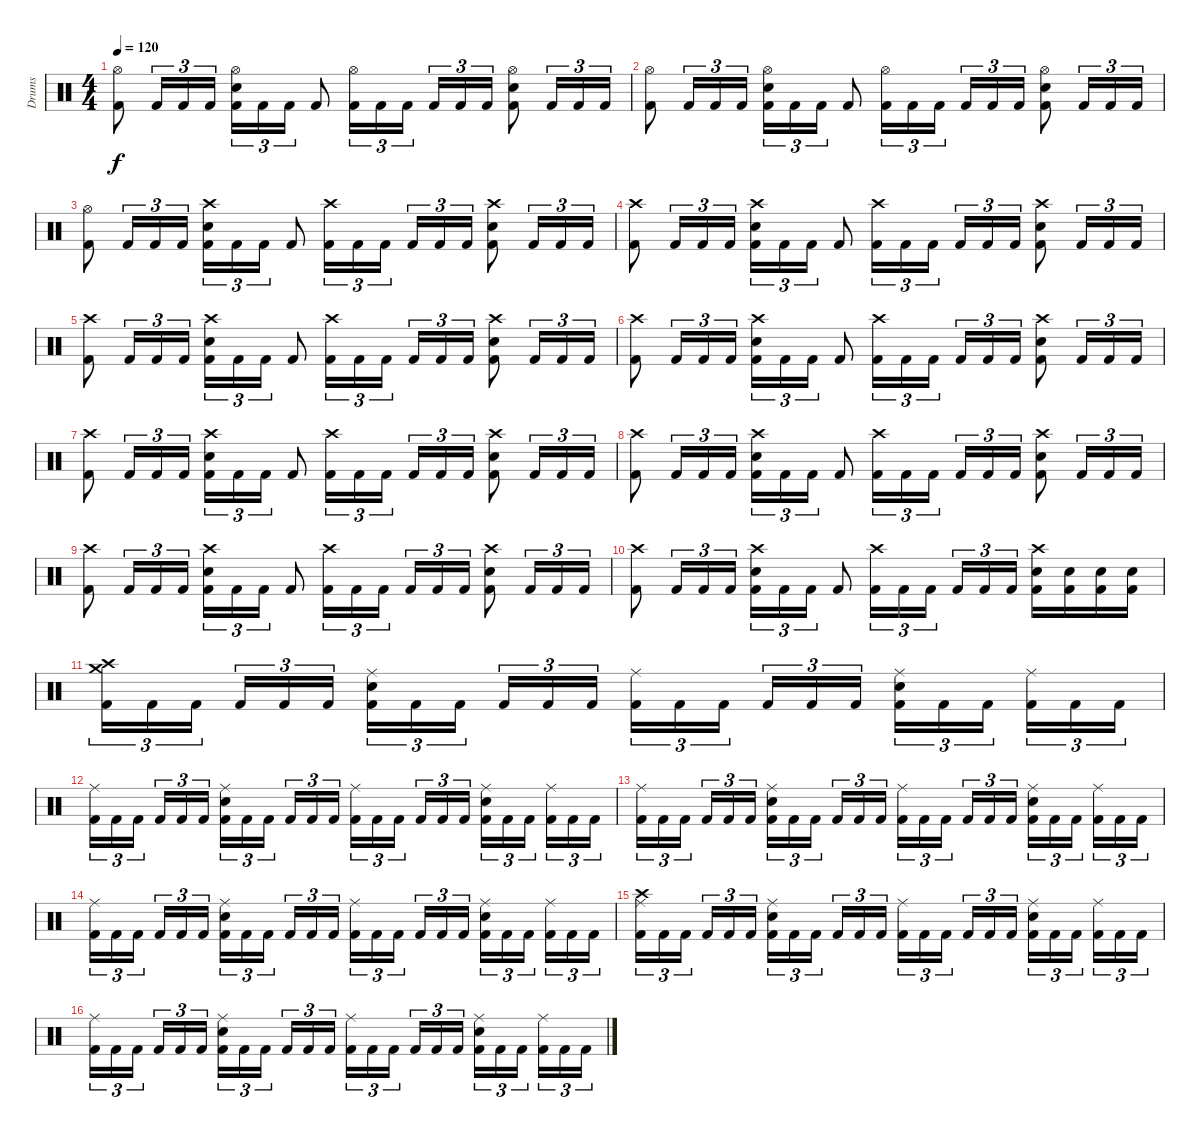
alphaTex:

\track ("Drums" "Drums") {instrument percussion}
\staff {score}
\articulation defaults
\ts (4 4)
\tempo 120
\clef neutral
\ks c
("Hi-Hat (open)" "Kick (hit) 2").8{dy f} "Kick (hit) 2".16{tu (3 2)} "Kick (hit) 2".16{tu (3 2)} "Kick (hit) 2".16{tu (3 2)} ("Hi-Hat (open)" "Electric Snare (hit)" "Kick (hit) 2").16{tu (3 2)} "Kick (hit) 2".16{tu (3 2)} "Kick (hit) 2".16{tu (3 2)} "Kick (hit) 2".8 ("Hi-Hat (open)" "Kick (hit) 2").16{tu (3 2)} "Kick (hit) 2".16{tu (3 2)} "Kick (hit) 2".16{tu (3 2)} "Kick (hit) 2".16{tu (3 2)} "Kick (hit) 2".16{tu (3 2)} "Kick (hit) 2".16{tu (3 2)} ("Hi-Hat (open)" "Electric Snare (hit)" "Kick (hit) 2").8 "Kick (hit) 2".16{tu (3 2)} "Kick (hit) 2".16{tu (3 2)} "Kick (hit) 2".16{tu (3 2)} |
("Hi-Hat (open)" "Kick (hit) 2").8 "Kick (hit) 2".16{tu (3 2)} "Kick (hit) 2".16{tu (3 2)} "Kick (hit) 2".16{tu (3 2)} ("Hi-Hat (open)" "Electric Snare (hit)" "Kick (hit) 2").16{tu (3 2)} "Kick (hit) 2".16{tu (3 2)} "Kick (hit) 2".16{tu (3 2)} "Kick (hit) 2".8 ("Hi-Hat (open)" "Kick (hit) 2").16{tu (3 2)} "Kick (hit) 2".16{tu (3 2)} "Kick (hit) 2".16{tu (3 2)} "Kick (hit) 2".16{tu (3 2)} "Kick (hit) 2".16{tu (3 2)} "Kick (hit) 2".16{tu (3 2)} ("Hi-Hat (open)" "Electric Snare (hit)" "Kick (hit) 2").8 "Kick (hit) 2".16{tu (3 2)} "Kick (hit) 2".16{tu (3 2)} "Kick (hit) 2".16{tu (3 2)} |
("Hi-Hat (open)" "Kick (hit) 2").8 "Kick (hit) 2".16{tu (3 2)} "Kick (hit) 2".16{tu (3 2)} "Kick (hit) 2".16{tu (3 2)} ("Crash high (hit)" "Electric Snare (hit)" "Kick (hit) 2").16{tu (3 2)} "Kick (hit) 2".16{tu (3 2)} "Kick (hit) 2".16{tu (3 2)} "Kick (hit) 2".8 ("Crash high (hit)" "Kick (hit) 2").16{tu (3 2)} "Kick (hit) 2".16{tu (3 2)} "Kick (hit) 2".16{tu (3 2)} "Kick (hit) 2".16{tu (3 2)} "Kick (hit) 2".16{tu (3 2)} "Kick (hit) 2".16{tu (3 2)} ("Crash high (hit)" "Electric Snare (hit)" "Kick (hit) 2").8 "Kick (hit) 2".16{tu (3 2)} "Kick (hit) 2".16{tu (3 2)} "Kick (hit) 2".16{tu (3 2)} |
("Crash high (hit)" "Kick (hit) 2").8 "Kick (hit) 2".16{tu (3 2)} "Kick (hit) 2".16{tu (3 2)} "Kick (hit) 2".16{tu (3 2)} ("Crash high (hit)" "Electric Snare (hit)" "Kick (hit) 2").16{tu (3 2)} "Kick (hit) 2".16{tu (3 2)} "Kick (hit) 2".16{tu (3 2)} "Kick (hit) 2".8 ("Crash high (hit)" "Kick (hit) 2").16{tu (3 2)} "Kick (hit) 2".16{tu (3 2)} "Kick (hit) 2".16{tu (3 2)} "Kick (hit) 2".16{tu (3 2)} "Kick (hit) 2".16{tu (3 2)} "Kick (hit) 2".16{tu (3 2)} ("Crash high (hit)" "Electric Snare (hit)" "Kick (hit) 2").8 "Kick (hit) 2".16{tu (3 2)} "Kick (hit) 2".16{tu (3 2)} "Kick (hit) 2".16{tu (3 2)} |
("Crash high (hit)" "Kick (hit) 2").8 "Kick (hit) 2".16{tu (3 2)} "Kick (hit) 2".16{tu (3 2)} "Kick (hit) 2".16{tu (3 2)} ("Crash high (hit)" "Electric Snare (hit)" "Kick (hit) 2").16{tu (3 2)} "Kick (hit) 2".16{tu (3 2)} "Kick (hit) 2".16{tu (3 2)} "Kick (hit) 2".8 ("Crash high (hit)" "Kick (hit) 2").16{tu (3 2)} "Kick (hit) 2".16{tu (3 2)} "Kick (hit) 2".16{tu (3 2)} "Kick (hit) 2".16{tu (3 2)} "Kick (hit) 2".16{tu (3 2)} "Kick (hit) 2".16{tu (3 2)} ("Crash high (hit)" "Electric Snare (hit)" "Kick (hit) 2").8 "Kick (hit) 2".16{tu (3 2)} "Kick (hit) 2".16{tu (3 2)} "Kick (hit) 2".16{tu (3 2)} |
("Crash high (hit)" "Kick (hit) 2").8 "Kick (hit) 2".16{tu (3 2)} "Kick (hit) 2".16{tu (3 2)} "Kick (hit) 2".16{tu (3 2)} ("Crash high (hit)" "Electric Snare (hit)" "Kick (hit) 2").16{tu (3 2)} "Kick (hit) 2".16{tu (3 2)} "Kick (hit) 2".16{tu (3 2)} "Kick (hit) 2".8 ("Crash high (hit)" "Kick (hit) 2").16{tu (3 2)} "Kick (hit) 2".16{tu (3 2)} "Kick (hit) 2".16{tu (3 2)} "Kick (hit) 2".16{tu (3 2)} "Kick (hit) 2".16{tu (3 2)} "Kick (hit) 2".16{tu (3 2)} ("Crash high (hit)" "Electric Snare (hit)" "Kick (hit) 2").8 "Kick (hit) 2".16{tu (3 2)} "Kick (hit) 2".16{tu (3 2)} "Kick (hit) 2".16{tu (3 2)} |
("Crash high (hit)" "Kick (hit) 2").8 "Kick (hit) 2".16{tu (3 2)} "Kick (hit) 2".16{tu (3 2)} "Kick (hit) 2".16{tu (3 2)} ("Crash high (hit)" "Electric Snare (hit)" "Kick (hit) 2").16{tu (3 2)} "Kick (hit) 2".16{tu (3 2)} "Kick (hit) 2".16{tu (3 2)} "Kick (hit) 2".8 ("Crash high (hit)" "Kick (hit) 2").16{tu (3 2)} "Kick (hit) 2".16{tu (3 2)} "Kick (hit) 2".16{tu (3 2)} "Kick (hit) 2".16{tu (3 2)} "Kick (hit) 2".16{tu (3 2)} "Kick (hit) 2".16{tu (3 2)} ("Crash high (hit)" "Electric Snare (hit)" "Kick (hit) 2").8 "Kick (hit) 2".16{tu (3 2)} "Kick (hit) 2".16{tu (3 2)} "Kick (hit) 2".16{tu (3 2)} |
("Crash high (hit)" "Kick (hit) 2").8 "Kick (hit) 2".16{tu (3 2)} "Kick (hit) 2".16{tu (3 2)} "Kick (hit) 2".16{tu (3 2)} ("Crash high (hit)" "Electric Snare (hit)" "Kick (hit) 2").16{tu (3 2)} "Kick (hit) 2".16{tu (3 2)} "Kick (hit) 2".16{tu (3 2)} "Kick (hit) 2".8 ("Crash high (hit)" "Kick (hit) 2").16{tu (3 2)} "Kick (hit) 2".16{tu (3 2)} "Kick (hit) 2".16{tu (3 2)} "Kick (hit) 2".16{tu (3 2)} "Kick (hit) 2".16{tu (3 2)} "Kick (hit) 2".16{tu (3 2)} ("Crash high (hit)" "Electric Snare (hit)" "Kick (hit) 2").8 "Kick (hit) 2".16{tu (3 2)} "Kick (hit) 2".16{tu (3 2)} "Kick (hit) 2".16{tu (3 2)} |
("Crash high (hit)" "Kick (hit) 2").8 "Kick (hit) 2".16{tu (3 2)} "Kick (hit) 2".16{tu (3 2)} "Kick (hit) 2".16{tu (3 2)} ("Crash high (hit)" "Electric Snare (hit)" "Kick (hit) 2").16{tu (3 2)} "Kick (hit) 2".16{tu (3 2)} "Kick (hit) 2".16{tu (3 2)} "Kick (hit) 2".8 ("Crash high (hit)" "Kick (hit) 2").16{tu (3 2)} "Kick (hit) 2".16{tu (3 2)} "Kick (hit) 2".16{tu (3 2)} "Kick (hit) 2".16{tu (3 2)} "Kick (hit) 2".16{tu (3 2)} "Kick (hit) 2".16{tu (3 2)} ("Crash high (hit)" "Electric Snare (hit)" "Kick (hit) 2").8 "Kick (hit) 2".16{tu (3 2)} "Kick (hit) 2".16{tu (3 2)} "Kick (hit) 2".16{tu (3 2)} |
("Crash high (hit)" "Kick (hit) 2").8 "Kick (hit) 2".16{tu (3 2)} "Kick (hit) 2".16{tu (3 2)} "Kick (hit) 2".16{tu (3 2)} ("Crash high (hit)" "Electric Snare (hit)" "Kick (hit) 2").16{tu (3 2)} "Kick (hit) 2".16{tu (3 2)} "Kick (hit) 2".16{tu (3 2)} "Kick (hit) 2".8 ("Crash high (hit)" "Kick (hit) 2").16{tu (3 2)} "Kick (hit) 2".16{tu (3 2)} "Kick (hit) 2".16{tu (3 2)} "Kick (hit) 2".16{tu (3 2)} "Kick (hit) 2".16{tu (3 2)} "Kick (hit) 2".16{tu (3 2)} ("Crash high (hit)" "Electric Snare (hit)" "Kick (hit) 2").16 ("Electric Snare (hit)" "Kick (hit) 2").16 ("Electric Snare (hit)" "Kick (hit) 2").16 ("Electric Snare (hit)" "Kick (hit) 2").16 |
("Crash medium (hit)" "Crash high (hit)" "Kick (hit) 2").16{tu (3 2)} "Kick (hit) 2".16{tu (3 2)} "Kick (hit) 2".16{tu (3 2)} "Kick (hit) 2".16{tu (3 2)} "Kick (hit) 2".16{tu (3 2)} "Kick (hit) 2".16{tu (3 2)} ("Ride (middle)" "Electric Snare (hit)" "Kick (hit) 2").16{tu (3 2)} "Kick (hit) 2".16{tu (3 2)} "Kick (hit) 2".16{tu (3 2)} "Kick (hit) 2".16{tu (3 2)} "Kick (hit) 2".16{tu (3 2)} "Kick (hit) 2".16{tu (3 2)} ("Ride (middle)" "Kick (hit) 2").16{tu (3 2)} "Kick (hit) 2".16{tu (3 2)} "Kick (hit) 2".16{tu (3 2)} "Kick (hit) 2".16{tu (3 2)} "Kick (hit) 2".16{tu (3 2)} "Kick (hit) 2".16{tu (3 2)} ("Ride (middle)" "Electric Snare (hit)" "Kick (hit) 2").16{tu (3 2)} "Kick (hit) 2".16{tu (3 2)} "Kick (hit) 2".16{tu (3 2)} ("Ride (middle)" "Kick (hit) 2").16{tu (3 2)} "Kick (hit) 2".16{tu (3 2)} "Kick (hit) 2".16{tu (3 2)} |
("Ride (middle)" "Kick (hit) 2").16{tu (3 2)} "Kick (hit) 2".16{tu (3 2)} "Kick (hit) 2".16{tu (3 2)} "Kick (hit) 2".16{tu (3 2)} "Kick (hit) 2".16{tu (3 2)} "Kick (hit) 2".16{tu (3 2)} ("Ride (middle)" "Electric Snare (hit)" "Kick (hit) 2").16{tu (3 2)} "Kick (hit) 2".16{tu (3 2)} "Kick (hit) 2".16{tu (3 2)} "Kick (hit) 2".16{tu (3 2)} "Kick (hit) 2".16{tu (3 2)} "Kick (hit) 2".16{tu (3 2)} ("Ride (middle)" "Kick (hit) 2").16{tu (3 2)} "Kick (hit) 2".16{tu (3 2)} "Kick (hit) 2".16{tu (3 2)} "Kick (hit) 2".16{tu (3 2)} "Kick (hit) 2".16{tu (3 2)} "Kick (hit) 2".16{tu (3 2)} ("Ride (middle)" "Electric Snare (hit)" "Kick (hit) 2").16{tu (3 2)} "Kick (hit) 2".16{tu (3 2)} "Kick (hit) 2".16{tu (3 2)} ("Ride (middle)" "Kick (hit) 2").16{tu (3 2)} "Kick (hit) 2".16{tu (3 2)} "Kick (hit) 2".16{tu (3 2)} |
("Ride (middle)" "Kick (hit) 2").16{tu (3 2)} "Kick (hit) 2".16{tu (3 2)} "Kick (hit) 2".16{tu (3 2)} "Kick (hit) 2".16{tu (3 2)} "Kick (hit) 2".16{tu (3 2)} "Kick (hit) 2".16{tu (3 2)} ("Ride (middle)" "Electric Snare (hit)" "Kick (hit) 2").16{tu (3 2)} "Kick (hit) 2".16{tu (3 2)} "Kick (hit) 2".16{tu (3 2)} "Kick (hit) 2".16{tu (3 2)} "Kick (hit) 2".16{tu (3 2)} "Kick (hit) 2".16{tu (3 2)} ("Ride (middle)" "Kick (hit) 2").16{tu (3 2)} "Kick (hit) 2".16{tu (3 2)} "Kick (hit) 2".16{tu (3 2)} "Kick (hit) 2".16{tu (3 2)} "Kick (hit) 2".16{tu (3 2)} "Kick (hit) 2".16{tu (3 2)} ("Ride (middle)" "Electric Snare (hit)" "Kick (hit) 2").16{tu (3 2)} "Kick (hit) 2".16{tu (3 2)} "Kick (hit) 2".16{tu (3 2)} ("Ride (middle)" "Kick (hit) 2").16{tu (3 2)} "Kick (hit) 2".16{tu (3 2)} "Kick (hit) 2".16{tu (3 2)} |
("Ride (middle)" "Kick (hit) 2").16{tu (3 2)} "Kick (hit) 2".16{tu (3 2)} "Kick (hit) 2".16{tu (3 2)} "Kick (hit) 2".16{tu (3 2)} "Kick (hit) 2".16{tu (3 2)} "Kick (hit) 2".16{tu (3 2)} ("Ride (middle)" "Electric Snare (hit)" "Kick (hit) 2").16{tu (3 2)} "Kick (hit) 2".16{tu (3 2)} "Kick (hit) 2".16{tu (3 2)} "Kick (hit) 2".16{tu (3 2)} "Kick (hit) 2".16{tu (3 2)} "Kick (hit) 2".16{tu (3 2)} ("Ride (middle)" "Kick (hit) 2").16{tu (3 2)} "Kick (hit) 2".16{tu (3 2)} "Kick (hit) 2".16{tu (3 2)} "Kick (hit) 2".16{tu (3 2)} "Kick (hit) 2".16{tu (3 2)} "Kick (hit) 2".16{tu (3 2)} ("Ride (middle)" "Electric Snare (hit)" "Kick (hit) 2").16{tu (3 2)} "Kick (hit) 2".16{tu (3 2)} "Kick (hit) 2".16{tu (3 2)} ("Ride (middle)" "Kick (hit) 2").16{tu (3 2)} "Kick (hit) 2".16{tu (3 2)} "Kick (hit) 2".16{tu (3 2)} |
("Crash high (hit)" "Ride (middle)" "Kick (hit) 2").16{tu (3 2)} "Kick (hit) 2".16{tu (3 2)} "Kick (hit) 2".16{tu (3 2)} "Kick (hit) 2".16{tu (3 2)} "Kick (hit) 2".16{tu (3 2)} "Kick (hit) 2".16{tu (3 2)} ("Ride (middle)" "Electric Snare (hit)" "Kick (hit) 2").16{tu (3 2)} "Kick (hit) 2".16{tu (3 2)} "Kick (hit) 2".16{tu (3 2)} "Kick (hit) 2".16{tu (3 2)} "Kick (hit) 2".16{tu (3 2)} "Kick (hit) 2".16{tu (3 2)} ("Ride (middle)" "Kick (hit) 2").16{tu (3 2)} "Kick (hit) 2".16{tu (3 2)} "Kick (hit) 2".16{tu (3 2)} "Kick (hit) 2".16{tu (3 2)} "Kick (hit) 2".16{tu (3 2)} "Kick (hit) 2".16{tu (3 2)} ("Ride (middle)" "Electric Snare (hit)" "Kick (hit) 2").16{tu (3 2)} "Kick (hit) 2".16{tu (3 2)} "Kick (hit) 2".16{tu (3 2)} ("Ride (middle)" "Kick (hit) 2").16{tu (3 2)} "Kick (hit) 2".16{tu (3 2)} "Kick (hit) 2".16{tu (3 2)} |
("Ride (middle)" "Kick (hit) 2").16{tu (3 2)} "Kick (hit) 2".16{tu (3 2)} "Kick (hit) 2".16{tu (3 2)} "Kick (hit) 2".16{tu (3 2)} "Kick (hit) 2".16{tu (3 2)} "Kick (hit) 2".16{tu (3 2)} ("Ride (middle)" "Electric Snare (hit)" "Kick (hit) 2").16{tu (3 2)} "Kick (hit) 2".16{tu (3 2)} "Kick (hit) 2".16{tu (3 2)} "Kick (hit) 2".16{tu (3 2)} "Kick (hit) 2".16{tu (3 2)} "Kick (hit) 2".16{tu (3 2)} ("Ride (middle)" "Kick (hit) 2").16{tu (3 2)} "Kick (hit) 2".16{tu (3 2)} "Kick (hit) 2".16{tu (3 2)} "Kick (hit) 2".16{tu (3 2)} "Kick (hit) 2".16{tu (3 2)} "Kick (hit) 2".16{tu (3 2)} ("Ride (middle)" "Electric Snare (hit)" "Kick (hit) 2").16{tu (3 2)} "Kick (hit) 2".16{tu (3 2)} "Kick (hit) 2".16{tu (3 2)} ("Ride (middle)" "Kick (hit) 2").16{tu (3 2)} "Kick (hit) 2".16{tu (3 2)} "Kick (hit) 2".16{tu (3 2)}
